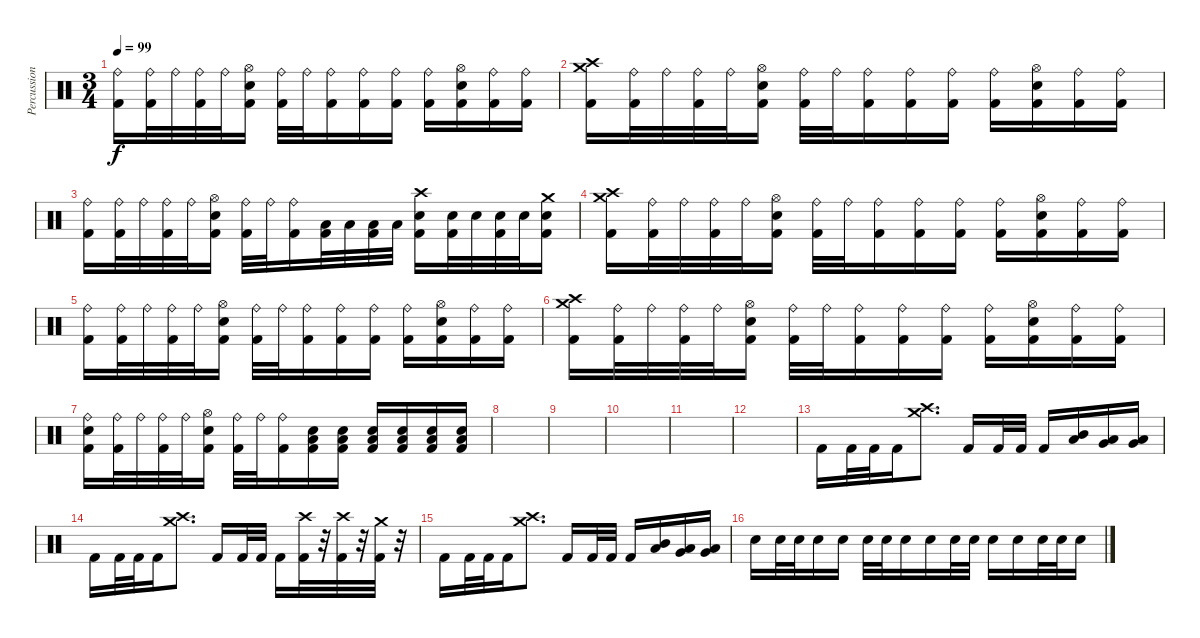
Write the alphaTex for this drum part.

\track ("Percussion" "Percussion") {instrument percussion}
\staff {score}
\articulation defaults
\ts (3 4)
\tempo 99
\clef neutral
\ks c
("Ride (bell)" "Kick (hit) 2").16{dy f} ("Ride (bell)" "Kick (hit) 2").32 "Ride (bell)".32 ("Ride (bell)" "Kick (hit) 2").32 "Ride (bell)".32 ("Hi-Hat (open)" "Electric Snare (hit)" "Kick (hit) 2").16 ("Ride (bell)" "Kick (hit) 2").32 "Ride (bell)".32 ("Ride (bell)" "Kick (hit) 2").16 ("Ride (bell)" "Kick (hit) 2").16 ("Ride (bell)" "Kick (hit) 2").16 ("Ride (bell)" "Kick (hit) 2").16 ("Hi-Hat (open)" "Electric Snare (hit)" "Kick (hit) 2").16 ("Ride (bell)" "Kick (hit) 2").16 ("Ride (bell)" "Kick (hit) 2").16 |
("Crash medium (hit)" "Crash high (hit)" "Kick (hit) 2").16 ("Ride (bell)" "Kick (hit) 2").32 "Ride (bell)".32 ("Ride (bell)" "Kick (hit) 2").32 "Ride (bell)".32 ("Hi-Hat (open)" "Electric Snare (hit)" "Kick (hit) 2").16 ("Ride (bell)" "Kick (hit) 2").32 "Ride (bell)".32 ("Ride (bell)" "Kick (hit) 2").16 ("Ride (bell)" "Kick (hit) 2").16 ("Ride (bell)" "Kick (hit) 2").16 ("Ride (bell)" "Kick (hit) 2").16 ("Hi-Hat (open)" "Electric Snare (hit)" "Kick (hit) 2").16 ("Ride (bell)" "Kick (hit) 2").16 ("Ride (bell)" "Kick (hit) 2").16 |
("Ride (bell)" "Kick (hit) 2").16 ("Ride (bell)" "Kick (hit) 2").32 "Ride (bell)".32 ("Ride (bell)" "Kick (hit) 2").32 "Ride (bell)".32 ("Hi-Hat (open)" "Electric Snare (hit)" "Kick (hit) 2").16 ("Ride (bell)" "Kick (hit) 2").32 "Ride (bell)".32 ("Ride (bell)" "Kick (hit) 2").16 ("Low Floor Tom (hit)" "Kick (hit) 2").32 "Low Floor Tom (hit)".32 ("Low Floor Tom (hit)" "Kick (hit) 2").32 "Low Floor Tom (hit)".32 ("Crash high (hit)" "Electric Snare (hit)" "Kick (hit) 2").16 ("Electric Snare (hit)" "Kick (hit) 2").32 "Electric Snare (hit)".32 ("Electric Snare (hit)" "Kick (hit) 2").32 "Electric Snare (hit)".32 ("Crash medium (hit)" "Electric Snare (hit)" "Kick (hit) 2").16 |
("Crash medium (hit)" "Crash high (hit)" "Kick (hit) 2").16 ("Ride (bell)" "Kick (hit) 2").32 "Ride (bell)".32 ("Ride (bell)" "Kick (hit) 2").32 "Ride (bell)".32 ("Hi-Hat (open)" "Electric Snare (hit)" "Kick (hit) 2").16 ("Ride (bell)" "Kick (hit) 2").32 "Ride (bell)".32 ("Ride (bell)" "Kick (hit) 2").16 ("Ride (bell)" "Kick (hit) 2").16 ("Ride (bell)" "Kick (hit) 2").16 ("Ride (bell)" "Kick (hit) 2").16 ("Hi-Hat (open)" "Electric Snare (hit)" "Kick (hit) 2").16 ("Ride (bell)" "Kick (hit) 2").16 ("Ride (bell)" "Kick (hit) 2").16 |
("Ride (bell)" "Kick (hit) 2").16 ("Ride (bell)" "Kick (hit) 2").32 "Ride (bell)".32 ("Ride (bell)" "Kick (hit) 2").32 "Ride (bell)".32 ("Hi-Hat (open)" "Electric Snare (hit)" "Kick (hit) 2").16 ("Ride (bell)" "Kick (hit) 2").32 "Ride (bell)".32 ("Ride (bell)" "Kick (hit) 2").16 ("Ride (bell)" "Kick (hit) 2").16 ("Ride (bell)" "Kick (hit) 2").16 ("Ride (bell)" "Kick (hit) 2").16 ("Hi-Hat (open)" "Electric Snare (hit)" "Kick (hit) 2").16 ("Ride (bell)" "Kick (hit) 2").16 ("Ride (bell)" "Kick (hit) 2").16 |
("Crash medium (hit)" "Crash high (hit)" "Kick (hit) 2").16 ("Ride (bell)" "Kick (hit) 2").32 "Ride (bell)".32 ("Ride (bell)" "Kick (hit) 2").32 "Ride (bell)".32 ("Hi-Hat (open)" "Electric Snare (hit)" "Kick (hit) 2").16 ("Ride (bell)" "Kick (hit) 2").32 "Ride (bell)".32 ("Ride (bell)" "Kick (hit) 2").16 ("Ride (bell)" "Kick (hit) 2").16 ("Ride (bell)" "Kick (hit) 2").16 ("Ride (bell)" "Kick (hit) 2").16 ("Hi-Hat (open)" "Electric Snare (hit)" "Kick (hit) 2").16 ("Ride (bell)" "Kick (hit) 2").16 ("Ride (bell)" "Kick (hit) 2").16 |
("Ride (bell)" "Electric Snare (hit)" "Kick (hit) 2").16 ("Ride (bell)" "Kick (hit) 2").32 "Ride (bell)".32 ("Ride (bell)" "Kick (hit) 2").32 "Ride (bell)".32 ("Hi-Hat (open)" "Electric Snare (hit)" "Kick (hit) 2").16 ("Ride (bell)" "Kick (hit) 2").32 "Ride (bell)".32 ("Ride (bell)" "Kick (hit) 2").16 ("Low Floor Tom (hit)" "Electric Snare (hit)" "Kick (hit) 2").16 ("Low Floor Tom (hit)" "Electric Snare (hit)" "Kick (hit) 2").16 ("Low Floor Tom (hit)" "Electric Snare (hit)" "Kick (hit) 2").16 ("Low Floor Tom (hit)" "Electric Snare (hit)" "Kick (hit) 2").16 ("Low Floor Tom (hit)" "Electric Snare (hit)" "Kick (hit) 2").16 ("Low Floor Tom (hit)" "Electric Snare (hit)" "Kick (hit) 2").16 |
|
|
|
|
|
"Kick (hit) 2".16 "Kick (hit) 2".32 "Kick (hit) 2".32 "Kick (hit) 2".16 ("Crash medium (hit)" "Crash high (hit)").8{d} "Kick (hit) 2".16 "Kick (hit) 2".32 "Kick (hit) 2".32 "Kick (hit) 2".16 ("Mid Tom (hit)" "Low Tom (hit)").16 ("Low Tom (hit)" "Very Low Tom (hit)").16 ("Very Low Tom (hit)" "Low Floor Tom (hit)").16 |
"Kick (hit) 2".16 "Kick (hit) 2".32 "Kick (hit) 2".32 "Kick (hit) 2".16 ("Crash medium (hit)" "Crash high (hit)").8{d} "Kick (hit) 2".16 "Kick (hit) 2".32 "Kick (hit) 2".32 "Kick (hit) 2".16 ("Crash high (hit)" "Kick (hit) 2").32 r.32 ("Crash high (hit)" "Kick (hit) 2").32 r.32 ("Crash medium (hit)" "Kick (hit) 2").32 r.32 |
"Kick (hit) 2".16 "Kick (hit) 2".32 "Kick (hit) 2".32 "Kick (hit) 2".16 ("Crash medium (hit)" "Crash high (hit)").8{d} "Kick (hit) 2".16 "Kick (hit) 2".32 "Kick (hit) 2".32 "Kick (hit) 2".16 ("Mid Tom (hit)" "Low Tom (hit)").16 ("Low Tom (hit)" "Very Low Tom (hit)").16 ("Very Low Tom (hit)" "Low Floor Tom (hit)").16 |
"Electric Snare (hit)".16 "Electric Snare (hit)".32 "Electric Snare (hit)".32 "Electric Snare (hit)".16 "Electric Snare (hit)".16 "Electric Snare (hit)".32 "Electric Snare (hit)".32 "Electric Snare (hit)".16 "Electric Snare (hit)".16 "Electric Snare (hit)".32 "Electric Snare (hit)".32 "Electric Snare (hit)".16 "Electric Snare (hit)".16 "Electric Snare (hit)".32 "Electric Snare (hit)".32 "Electric Snare (hit)".16
